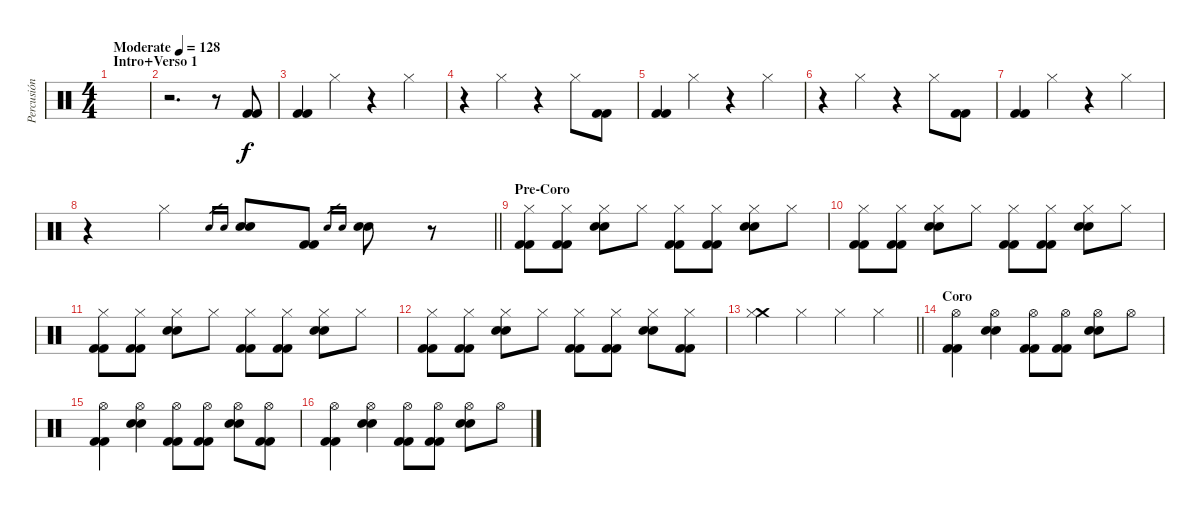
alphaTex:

\track ("Percusión" "Percusión") {instrument percussion}
\staff {score}
\articulation defaults
\ts (4 4)
\section ("" "Intro+Verso 1")
\tempo (128 "Moderate")
\clef neutral
\ks c
|
r.2{d} r.8 ("Kick (hit) 2" "Kick (hit) 2").8 |
("Kick (hit) 2" "Kick (hit) 2").4 "Hi-Hat (closed)".4 r.4 "Hi-Hat (closed)".4 |
r.4 "Hi-Hat (closed)".4 r.4 "Hi-Hat (closed)".8 ("Kick (hit) 2" "Kick (hit) 2").8 |
("Kick (hit) 2" "Kick (hit) 2").4 "Hi-Hat (closed)".4 r.4 "Hi-Hat (closed)".4 |
r.4 "Hi-Hat (closed)".4 r.4 "Hi-Hat (closed)".8 ("Kick (hit) 2" "Kick (hit) 2").8 |
("Kick (hit) 2" "Kick (hit) 2").4 "Hi-Hat (closed)".4 r.4 "Hi-Hat (closed)".4 |
\barLineRight lightlight
r.4 "Hi-Hat (closed)".4 "Electric Snare (hit)".16{gr} "Electric Snare (hit)".16{gr} ("Electric Snare (hit)" "Electric Snare (hit)").8 ("Kick (hit) 2" "Kick (hit) 2").8 "Electric Snare (hit)".16{gr} "Electric Snare (hit)".16{gr} ("Electric Snare (hit)" "Electric Snare (hit)").8 r.8 |
\section ("" "Pre-Coro")
("Hi-Hat (closed)" "Kick (hit) 2" "Kick (hit) 2").8 ("Hi-Hat (closed)" "Kick (hit) 2" "Kick (hit) 2").8 ("Hi-Hat (closed)" "Electric Snare (hit)" "Electric Snare (hit)").8 "Hi-Hat (closed)".8 ("Hi-Hat (closed)" "Kick (hit) 2" "Kick (hit) 2").8 ("Hi-Hat (closed)" "Kick (hit) 2" "Kick (hit) 2").8 ("Hi-Hat (closed)" "Electric Snare (hit)" "Electric Snare (hit)").8 "Hi-Hat (closed)".8 |
("Hi-Hat (closed)" "Kick (hit) 2" "Kick (hit) 2").8 ("Hi-Hat (closed)" "Kick (hit) 2" "Kick (hit) 2").8 ("Hi-Hat (closed)" "Electric Snare (hit)" "Electric Snare (hit)").8 "Hi-Hat (closed)".8 ("Hi-Hat (closed)" "Kick (hit) 2" "Kick (hit) 2").8 ("Hi-Hat (closed)" "Kick (hit) 2" "Kick (hit) 2").8 ("Hi-Hat (closed)" "Electric Snare (hit)" "Electric Snare (hit)").8 "Hi-Hat (closed)".8 |
("Hi-Hat (closed)" "Kick (hit) 2" "Kick (hit) 2").8 ("Hi-Hat (closed)" "Kick (hit) 2" "Kick (hit) 2").8 ("Hi-Hat (closed)" "Electric Snare (hit)" "Electric Snare (hit)").8 "Hi-Hat (closed)".8 ("Hi-Hat (closed)" "Kick (hit) 2" "Kick (hit) 2").8 ("Hi-Hat (closed)" "Kick (hit) 2" "Kick (hit) 2").8 ("Hi-Hat (closed)" "Electric Snare (hit)" "Electric Snare (hit)").8 "Hi-Hat (closed)".8 |
("Hi-Hat (closed)" "Kick (hit) 2" "Kick (hit) 2").8 ("Hi-Hat (closed)" "Kick (hit) 2" "Kick (hit) 2").8 ("Hi-Hat (closed)" "Electric Snare (hit)" "Electric Snare (hit)").8 "Hi-Hat (closed)".8 ("Hi-Hat (closed)" "Kick (hit) 2" "Kick (hit) 2").8 ("Hi-Hat (closed)" "Kick (hit) 2" "Kick (hit) 2").8 ("Hi-Hat (closed)" "Electric Snare (hit)" "Electric Snare (hit)").8 ("Hi-Hat (closed)" "Kick (hit) 2" "Kick (hit) 2").8 |
\barLineRight lightlight
("Crash medium (hit)" "Hi-Hat (closed)").4 "Hi-Hat (closed)".4 "Hi-Hat (closed)".4 "Hi-Hat (closed)".4 |
\section ("" "Coro")
("Hi-Hat (open)" "Kick (hit) 2" "Kick (hit) 2").4 ("Hi-Hat (open)" "Electric Snare (hit)" "Electric Snare (hit)").4 ("Hi-Hat (open)" "Kick (hit) 2" "Kick (hit) 2").8 ("Hi-Hat (open)" "Kick (hit) 2" "Kick (hit) 2").8 ("Hi-Hat (open)" "Electric Snare (hit)" "Electric Snare (hit)").8 "Hi-Hat (open)".8 |
("Hi-Hat (open)" "Kick (hit) 2" "Kick (hit) 2").4 ("Hi-Hat (open)" "Electric Snare (hit)" "Electric Snare (hit)").4 ("Hi-Hat (open)" "Kick (hit) 2" "Kick (hit) 2").8 ("Hi-Hat (open)" "Kick (hit) 2" "Kick (hit) 2").8 ("Hi-Hat (open)" "Electric Snare (hit)" "Electric Snare (hit)").8 ("Hi-Hat (open)" "Kick (hit) 2" "Kick (hit) 2").8 |
("Hi-Hat (open)" "Kick (hit) 2" "Kick (hit) 2").4 ("Hi-Hat (open)" "Electric Snare (hit)" "Electric Snare (hit)").4 ("Hi-Hat (open)" "Kick (hit) 2" "Kick (hit) 2").8 ("Hi-Hat (open)" "Kick (hit) 2" "Kick (hit) 2").8 ("Hi-Hat (open)" "Electric Snare (hit)" "Electric Snare (hit)").8 "Hi-Hat (open)".8
